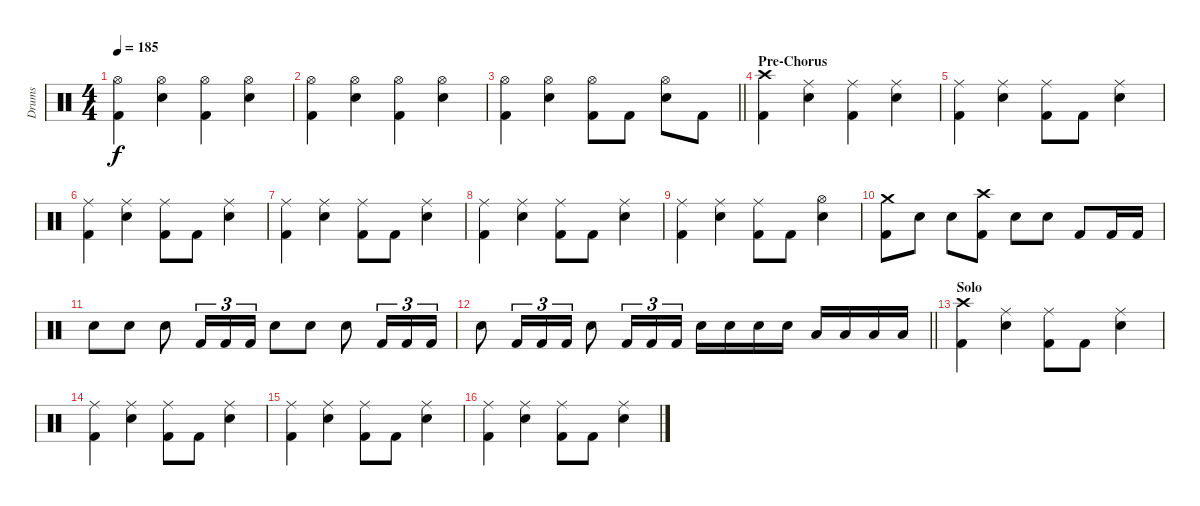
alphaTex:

\track ("Drums" "Drums") {instrument percussion}
\staff {score}
\articulation defaults
\ts (4 4)
\tempo 185
\clef neutral
\ks c
("Hi-Hat (open)" "Kick (hit) 2").4{dy f} ("Hi-Hat (open)" "Snare (hit) 2").4 ("Hi-Hat (open)" "Kick (hit) 2").4 ("Hi-Hat (open)" "Snare (hit) 2").4 |
("Hi-Hat (open)" "Kick (hit) 2").4 ("Hi-Hat (open)" "Snare (hit) 2").4 ("Hi-Hat (open)" "Kick (hit) 2").4 ("Hi-Hat (open)" "Snare (hit) 2").4 |
\barLineRight lightlight
("Hi-Hat (open)" "Kick (hit) 2").4 ("Hi-Hat (open)" "Snare (hit) 2").4 ("Hi-Hat (open)" "Kick (hit) 2").8 "Kick (hit) 2".8 ("Hi-Hat (open)" "Snare (hit) 2").8 "Kick (hit) 2".8 |
\section ("" "Pre-Chorus")
("Crash high (hit)" "Kick (hit) 2").4 ("Ride (middle)" "Snare (hit) 2").4 ("Ride (middle)" "Kick (hit) 2").4 ("Ride (middle)" "Snare (hit) 2").4 |
("Ride (middle)" "Kick (hit) 2").4 ("Ride (middle)" "Snare (hit) 2").4 ("Ride (middle)" "Kick (hit) 2").8 "Kick (hit) 2".8 ("Ride (middle)" "Snare (hit) 2").4 |
("Ride (middle)" "Kick (hit) 2").4 ("Ride (middle)" "Snare (hit) 2").4 ("Ride (middle)" "Kick (hit) 2").8 "Kick (hit) 2".8 ("Ride (middle)" "Snare (hit) 2").4 |
("Ride (middle)" "Kick (hit) 2").4 ("Ride (middle)" "Snare (hit) 2").4 ("Ride (middle)" "Kick (hit) 2").8 "Kick (hit) 2".8 ("Ride (middle)" "Snare (hit) 2").4 |
("Ride (middle)" "Kick (hit) 2").4 ("Ride (middle)" "Snare (hit) 2").4 ("Ride (middle)" "Kick (hit) 2").8 "Kick (hit) 2".8 ("Ride (middle)" "Snare (hit) 2").4 |
("Ride (middle)" "Kick (hit) 2").4 ("Ride (middle)" "Snare (hit) 2").4 ("Ride (middle)" "Kick (hit) 2").8 "Kick (hit) 2".8 ("Hi-Hat (open)" "Snare (hit) 2").4 |
("Crash medium (hit)" "Kick (hit) 2").8 "Snare (hit) 2".8 "Snare (hit) 2".8 ("Crash high (hit)" "Kick (hit) 2").8 "Snare (hit) 2".8 "Snare (hit) 2".8 "Kick (hit) 2".8 "Kick (hit) 2".16 "Kick (hit) 2".16 |
"Snare (hit) 2".8 "Snare (hit) 2".8 "Snare (hit) 2".8 "Kick (hit) 2".16{tu (3 2)} "Kick (hit) 2".16{tu (3 2)} "Kick (hit) 2".16{tu (3 2)} "Snare (hit) 2".8 "Snare (hit) 2".8 "Snare (hit) 2".8 "Kick (hit) 2".16{tu (3 2)} "Kick (hit) 2".16{tu (3 2)} "Kick (hit) 2".16{tu (3 2)} |
\barLineRight lightlight "Snare (hit) 2".8 "Kick (hit) 2".16{tu (3 2)} "Kick (hit) 2".16{tu (3 2)} "Kick (hit) 2".16{tu (3 2)} "Snare (hit) 2".8 "Kick (hit) 2".16{tu (3 2)} "Kick (hit) 2".16{tu (3 2)} "Kick (hit) 2".16{tu (3 2)} "Snare (hit) 2".16 "Snare (hit) 2".16 "Snare (hit) 2".16 "Snare (hit) 2".16 "Low Tom (hit)".16 "Low Tom (hit)".16 "Low Tom (hit)".16 "Low Tom (hit)".16
|
\section ("" "Solo")
("Crash high (hit)" "Kick (hit) 2").4 ("Ride (middle)" "Snare (hit) 2").4 ("Ride (middle)" "Kick (hit) 2").8 "Kick (hit) 2".8 ("Ride (middle)" "Snare (hit) 2").4 |
("Ride (middle)" "Kick (hit) 2").4 ("Ride (middle)" "Snare (hit) 2").4 ("Ride (middle)" "Kick (hit) 2").8 "Kick (hit) 2".8 ("Ride (middle)" "Snare (hit) 2").4 |
("Ride (middle)" "Kick (hit) 2").4 ("Ride (middle)" "Snare (hit) 2").4 ("Ride (middle)" "Kick (hit) 2").8 "Kick (hit) 2".8 ("Ride (middle)" "Snare (hit) 2").4 |
("Ride (middle)" "Kick (hit) 2").4 ("Ride (middle)" "Snare (hit) 2").4 ("Ride (middle)" "Kick (hit) 2").8 "Kick (hit) 2".8 ("Ride (middle)" "Snare (hit) 2").4
